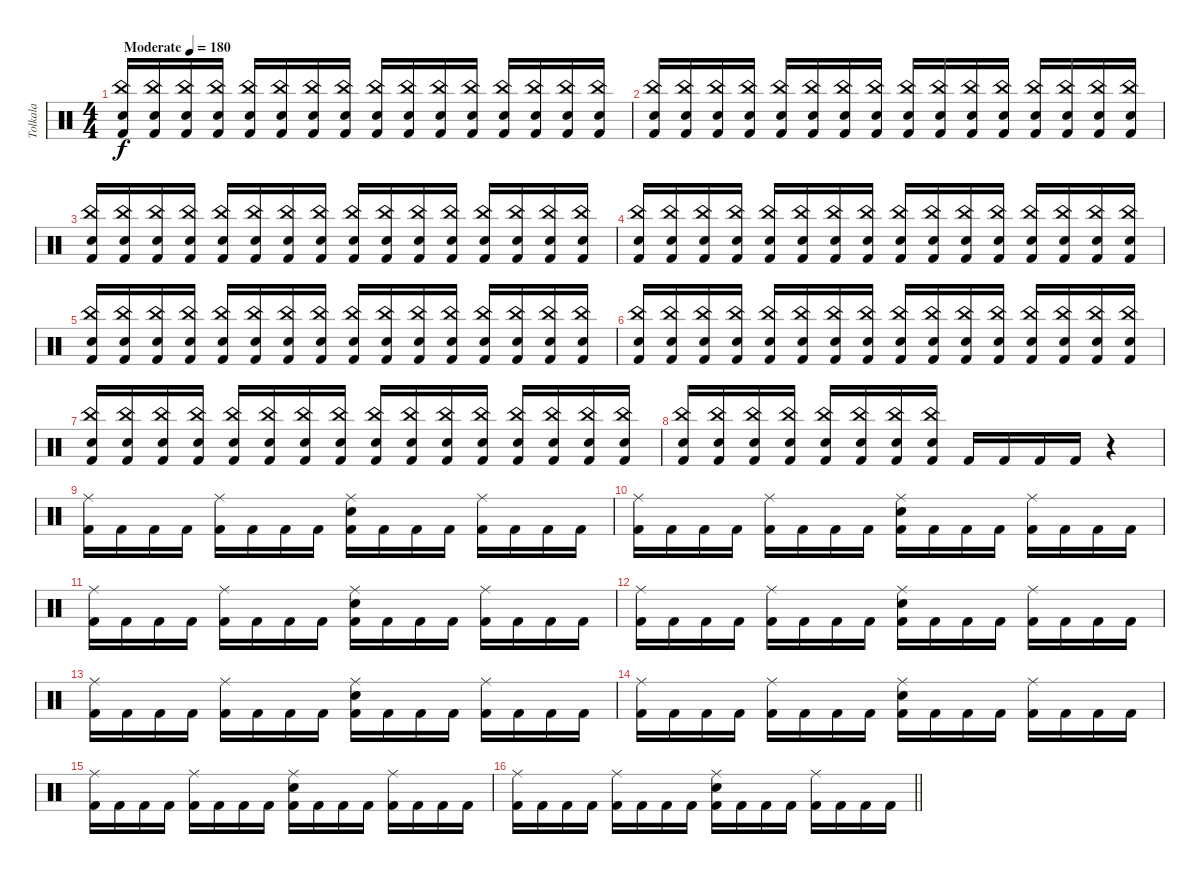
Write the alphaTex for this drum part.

\track ("Tolkala" "Tolkala") {instrument percussion}
\staff {score}
\articulation defaults
\ts (4 4)
\tempo (180 "Moderate")
\clef neutral
\ks c
("Electric Snare (hit)" "China (hit)" "Kick (hit) 2").16{dy f} ("Electric Snare (hit)" "China (hit)" "Kick (hit) 2").16 ("Electric Snare (hit)" "China (hit)" "Kick (hit) 2").16 ("Electric Snare (hit)" "China (hit)" "Kick (hit) 2").16 ("Electric Snare (hit)" "China (hit)" "Kick (hit) 2").16 ("Electric Snare (hit)" "China (hit)" "Kick (hit) 2").16 ("Electric Snare (hit)" "China (hit)" "Kick (hit) 2").16 ("Electric Snare (hit)" "China (hit)" "Kick (hit) 2").16 ("Electric Snare (hit)" "China (hit)" "Kick (hit) 2").16 ("Electric Snare (hit)" "China (hit)" "Kick (hit) 2").16 ("Electric Snare (hit)" "China (hit)" "Kick (hit) 2").16 ("Electric Snare (hit)" "China (hit)" "Kick (hit) 2").16 ("Electric Snare (hit)" "China (hit)" "Kick (hit) 2").16 ("Electric Snare (hit)" "China (hit)" "Kick (hit) 2").16 ("Electric Snare (hit)" "China (hit)" "Kick (hit) 2").16 ("Electric Snare (hit)" "China (hit)" "Kick (hit) 2").16 |
("Electric Snare (hit)" "China (hit)" "Kick (hit) 2").16 ("Electric Snare (hit)" "China (hit)" "Kick (hit) 2").16 ("Electric Snare (hit)" "China (hit)" "Kick (hit) 2").16 ("Electric Snare (hit)" "China (hit)" "Kick (hit) 2").16 ("Electric Snare (hit)" "China (hit)" "Kick (hit) 2").16 ("Electric Snare (hit)" "China (hit)" "Kick (hit) 2").16 ("Electric Snare (hit)" "China (hit)" "Kick (hit) 2").16 ("Electric Snare (hit)" "China (hit)" "Kick (hit) 2").16 ("Electric Snare (hit)" "China (hit)" "Kick (hit) 2").16 ("Electric Snare (hit)" "China (hit)" "Kick (hit) 2").16 ("Electric Snare (hit)" "China (hit)" "Kick (hit) 2").16 ("Electric Snare (hit)" "China (hit)" "Kick (hit) 2").16 ("Electric Snare (hit)" "China (hit)" "Kick (hit) 2").16 ("Electric Snare (hit)" "China (hit)" "Kick (hit) 2").16 ("Electric Snare (hit)" "China (hit)" "Kick (hit) 2").16 ("Electric Snare (hit)" "China (hit)" "Kick (hit) 2").16 |
("Electric Snare (hit)" "China (hit)" "Kick (hit) 2").16 ("Electric Snare (hit)" "China (hit)" "Kick (hit) 2").16 ("Electric Snare (hit)" "China (hit)" "Kick (hit) 2").16 ("Electric Snare (hit)" "China (hit)" "Kick (hit) 2").16 ("Electric Snare (hit)" "China (hit)" "Kick (hit) 2").16 ("Electric Snare (hit)" "China (hit)" "Kick (hit) 2").16 ("Electric Snare (hit)" "China (hit)" "Kick (hit) 2").16 ("Electric Snare (hit)" "China (hit)" "Kick (hit) 2").16 ("Electric Snare (hit)" "China (hit)" "Kick (hit) 2").16 ("Electric Snare (hit)" "China (hit)" "Kick (hit) 2").16 ("Electric Snare (hit)" "China (hit)" "Kick (hit) 2").16 ("Electric Snare (hit)" "China (hit)" "Kick (hit) 2").16 ("Electric Snare (hit)" "China (hit)" "Kick (hit) 2").16 ("Electric Snare (hit)" "China (hit)" "Kick (hit) 2").16 ("Electric Snare (hit)" "China (hit)" "Kick (hit) 2").16 ("Electric Snare (hit)" "China (hit)" "Kick (hit) 2").16 |
("Electric Snare (hit)" "China (hit)" "Kick (hit) 2").16 ("Electric Snare (hit)" "China (hit)" "Kick (hit) 2").16 ("Electric Snare (hit)" "China (hit)" "Kick (hit) 2").16 ("Electric Snare (hit)" "China (hit)" "Kick (hit) 2").16 ("Electric Snare (hit)" "China (hit)" "Kick (hit) 2").16 ("Electric Snare (hit)" "China (hit)" "Kick (hit) 2").16 ("Electric Snare (hit)" "China (hit)" "Kick (hit) 2").16 ("Electric Snare (hit)" "China (hit)" "Kick (hit) 2").16 ("Electric Snare (hit)" "China (hit)" "Kick (hit) 2").16 ("Electric Snare (hit)" "China (hit)" "Kick (hit) 2").16 ("Electric Snare (hit)" "China (hit)" "Kick (hit) 2").16 ("Electric Snare (hit)" "China (hit)" "Kick (hit) 2").16 ("Electric Snare (hit)" "China (hit)" "Kick (hit) 2").16 ("Electric Snare (hit)" "China (hit)" "Kick (hit) 2").16 ("Electric Snare (hit)" "China (hit)" "Kick (hit) 2").16 ("Electric Snare (hit)" "China (hit)" "Kick (hit) 2").16 |
("Electric Snare (hit)" "China (hit)" "Kick (hit) 2").16 ("Electric Snare (hit)" "China (hit)" "Kick (hit) 2").16 ("Electric Snare (hit)" "China (hit)" "Kick (hit) 2").16 ("Electric Snare (hit)" "China (hit)" "Kick (hit) 2").16 ("Electric Snare (hit)" "China (hit)" "Kick (hit) 2").16 ("Electric Snare (hit)" "China (hit)" "Kick (hit) 2").16 ("Electric Snare (hit)" "China (hit)" "Kick (hit) 2").16 ("Electric Snare (hit)" "China (hit)" "Kick (hit) 2").16 ("Electric Snare (hit)" "China (hit)" "Kick (hit) 2").16 ("Electric Snare (hit)" "China (hit)" "Kick (hit) 2").16 ("Electric Snare (hit)" "China (hit)" "Kick (hit) 2").16 ("Electric Snare (hit)" "China (hit)" "Kick (hit) 2").16 ("Electric Snare (hit)" "China (hit)" "Kick (hit) 2").16 ("Electric Snare (hit)" "China (hit)" "Kick (hit) 2").16 ("Electric Snare (hit)" "China (hit)" "Kick (hit) 2").16 ("Electric Snare (hit)" "China (hit)" "Kick (hit) 2").16 |
("Electric Snare (hit)" "China (hit)" "Kick (hit) 2").16 ("Electric Snare (hit)" "China (hit)" "Kick (hit) 2").16 ("Electric Snare (hit)" "China (hit)" "Kick (hit) 2").16 ("Electric Snare (hit)" "China (hit)" "Kick (hit) 2").16 ("Electric Snare (hit)" "China (hit)" "Kick (hit) 2").16 ("Electric Snare (hit)" "China (hit)" "Kick (hit) 2").16 ("Electric Snare (hit)" "China (hit)" "Kick (hit) 2").16 ("Electric Snare (hit)" "China (hit)" "Kick (hit) 2").16 ("Electric Snare (hit)" "China (hit)" "Kick (hit) 2").16 ("Electric Snare (hit)" "China (hit)" "Kick (hit) 2").16 ("Electric Snare (hit)" "China (hit)" "Kick (hit) 2").16 ("Electric Snare (hit)" "China (hit)" "Kick (hit) 2").16 ("Electric Snare (hit)" "China (hit)" "Kick (hit) 2").16 ("Electric Snare (hit)" "China (hit)" "Kick (hit) 2").16 ("Electric Snare (hit)" "China (hit)" "Kick (hit) 2").16 ("Electric Snare (hit)" "China (hit)" "Kick (hit) 2").16 |
("Electric Snare (hit)" "China (hit)" "Kick (hit) 2").16 ("Electric Snare (hit)" "China (hit)" "Kick (hit) 2").16 ("Electric Snare (hit)" "China (hit)" "Kick (hit) 2").16 ("Electric Snare (hit)" "China (hit)" "Kick (hit) 2").16 ("Electric Snare (hit)" "China (hit)" "Kick (hit) 2").16 ("Electric Snare (hit)" "China (hit)" "Kick (hit) 2").16 ("Electric Snare (hit)" "China (hit)" "Kick (hit) 2").16 ("Electric Snare (hit)" "China (hit)" "Kick (hit) 2").16 ("Electric Snare (hit)" "China (hit)" "Kick (hit) 2").16 ("Electric Snare (hit)" "China (hit)" "Kick (hit) 2").16 ("Electric Snare (hit)" "China (hit)" "Kick (hit) 2").16 ("Electric Snare (hit)" "China (hit)" "Kick (hit) 2").16 ("Electric Snare (hit)" "China (hit)" "Kick (hit) 2").16 ("Electric Snare (hit)" "China (hit)" "Kick (hit) 2").16 ("Electric Snare (hit)" "China (hit)" "Kick (hit) 2").16 ("Electric Snare (hit)" "China (hit)" "Kick (hit) 2").16 |
("Electric Snare (hit)" "China (hit)" "Kick (hit) 2").16 ("Electric Snare (hit)" "China (hit)" "Kick (hit) 2").16 ("Electric Snare (hit)" "China (hit)" "Kick (hit) 2").16 ("Electric Snare (hit)" "China (hit)" "Kick (hit) 2").16 ("Electric Snare (hit)" "China (hit)" "Kick (hit) 2").16 ("Electric Snare (hit)" "China (hit)" "Kick (hit) 2").16 ("Electric Snare (hit)" "China (hit)" "Kick (hit) 2").16 ("Electric Snare (hit)" "China (hit)" "Kick (hit) 2").16 "Kick (hit) 2".16 "Kick (hit) 2".16 "Kick (hit) 2".16 "Kick (hit) 2".16 r.4 |
("Ride (middle)" "Kick (hit) 2").16 "Kick (hit) 2".16 "Kick (hit) 2".16 "Kick (hit) 2".16 ("Ride (middle)" "Kick (hit) 2").16 "Kick (hit) 2".16 "Kick (hit) 2".16 "Kick (hit) 2".16 ("Ride (middle)" "Electric Snare (hit)" "Kick (hit) 2").16 "Kick (hit) 2".16 "Kick (hit) 2".16 "Kick (hit) 2".16 ("Ride (middle)" "Kick (hit) 2").16 "Kick (hit) 2".16 "Kick (hit) 2".16 "Kick (hit) 2".16 |
("Ride (middle)" "Kick (hit) 2").16 "Kick (hit) 2".16 "Kick (hit) 2".16 "Kick (hit) 2".16 ("Ride (middle)" "Kick (hit) 2").16 "Kick (hit) 2".16 "Kick (hit) 2".16 "Kick (hit) 2".16 ("Ride (middle)" "Electric Snare (hit)" "Kick (hit) 2").16 "Kick (hit) 2".16 "Kick (hit) 2".16 "Kick (hit) 2".16 ("Ride (middle)" "Kick (hit) 2").16 "Kick (hit) 2".16 "Kick (hit) 2".16 "Kick (hit) 2".16 |
("Ride (middle)" "Kick (hit) 2").16 "Kick (hit) 2".16 "Kick (hit) 2".16 "Kick (hit) 2".16 ("Ride (middle)" "Kick (hit) 2").16 "Kick (hit) 2".16 "Kick (hit) 2".16 "Kick (hit) 2".16 ("Ride (middle)" "Electric Snare (hit)" "Kick (hit) 2").16 "Kick (hit) 2".16 "Kick (hit) 2".16 "Kick (hit) 2".16 ("Ride (middle)" "Kick (hit) 2").16 "Kick (hit) 2".16 "Kick (hit) 2".16 "Kick (hit) 2".16 |
("Ride (middle)" "Kick (hit) 2").16 "Kick (hit) 2".16 "Kick (hit) 2".16 "Kick (hit) 2".16 ("Ride (middle)" "Kick (hit) 2").16 "Kick (hit) 2".16 "Kick (hit) 2".16 "Kick (hit) 2".16 ("Ride (middle)" "Electric Snare (hit)" "Kick (hit) 2").16 "Kick (hit) 2".16 "Kick (hit) 2".16 "Kick (hit) 2".16 ("Ride (middle)" "Kick (hit) 2").16 "Kick (hit) 2".16 "Kick (hit) 2".16 "Kick (hit) 2".16 |
("Ride (middle)" "Kick (hit) 2").16 "Kick (hit) 2".16 "Kick (hit) 2".16 "Kick (hit) 2".16 ("Ride (middle)" "Kick (hit) 2").16 "Kick (hit) 2".16 "Kick (hit) 2".16 "Kick (hit) 2".16 ("Ride (middle)" "Electric Snare (hit)" "Kick (hit) 2").16 "Kick (hit) 2".16 "Kick (hit) 2".16 "Kick (hit) 2".16 ("Ride (middle)" "Kick (hit) 2").16 "Kick (hit) 2".16 "Kick (hit) 2".16 "Kick (hit) 2".16 |
("Ride (middle)" "Kick (hit) 2").16 "Kick (hit) 2".16 "Kick (hit) 2".16 "Kick (hit) 2".16 ("Ride (middle)" "Kick (hit) 2").16 "Kick (hit) 2".16 "Kick (hit) 2".16 "Kick (hit) 2".16 ("Ride (middle)" "Electric Snare (hit)" "Kick (hit) 2").16 "Kick (hit) 2".16 "Kick (hit) 2".16 "Kick (hit) 2".16 ("Ride (middle)" "Kick (hit) 2").16 "Kick (hit) 2".16 "Kick (hit) 2".16 "Kick (hit) 2".16 |
("Ride (middle)" "Kick (hit) 2").16 "Kick (hit) 2".16 "Kick (hit) 2".16 "Kick (hit) 2".16 ("Ride (middle)" "Kick (hit) 2").16 "Kick (hit) 2".16 "Kick (hit) 2".16 "Kick (hit) 2".16 ("Ride (middle)" "Electric Snare (hit)" "Kick (hit) 2").16 "Kick (hit) 2".16 "Kick (hit) 2".16 "Kick (hit) 2".16 ("Ride (middle)" "Kick (hit) 2").16 "Kick (hit) 2".16 "Kick (hit) 2".16 "Kick (hit) 2".16 |
\barLineRight lightlight
("Ride (middle)" "Kick (hit) 2").16 "Kick (hit) 2".16 "Kick (hit) 2".16 "Kick (hit) 2".16 ("Ride (middle)" "Kick (hit) 2").16 "Kick (hit) 2".16 "Kick (hit) 2".16 "Kick (hit) 2".16 ("Ride (middle)" "Electric Snare (hit)" "Kick (hit) 2").16 "Kick (hit) 2".16 "Kick (hit) 2".16 "Kick (hit) 2".16 ("Ride (middle)" "Kick (hit) 2").16 "Kick (hit) 2".16 "Kick (hit) 2".16 "Kick (hit) 2".16
